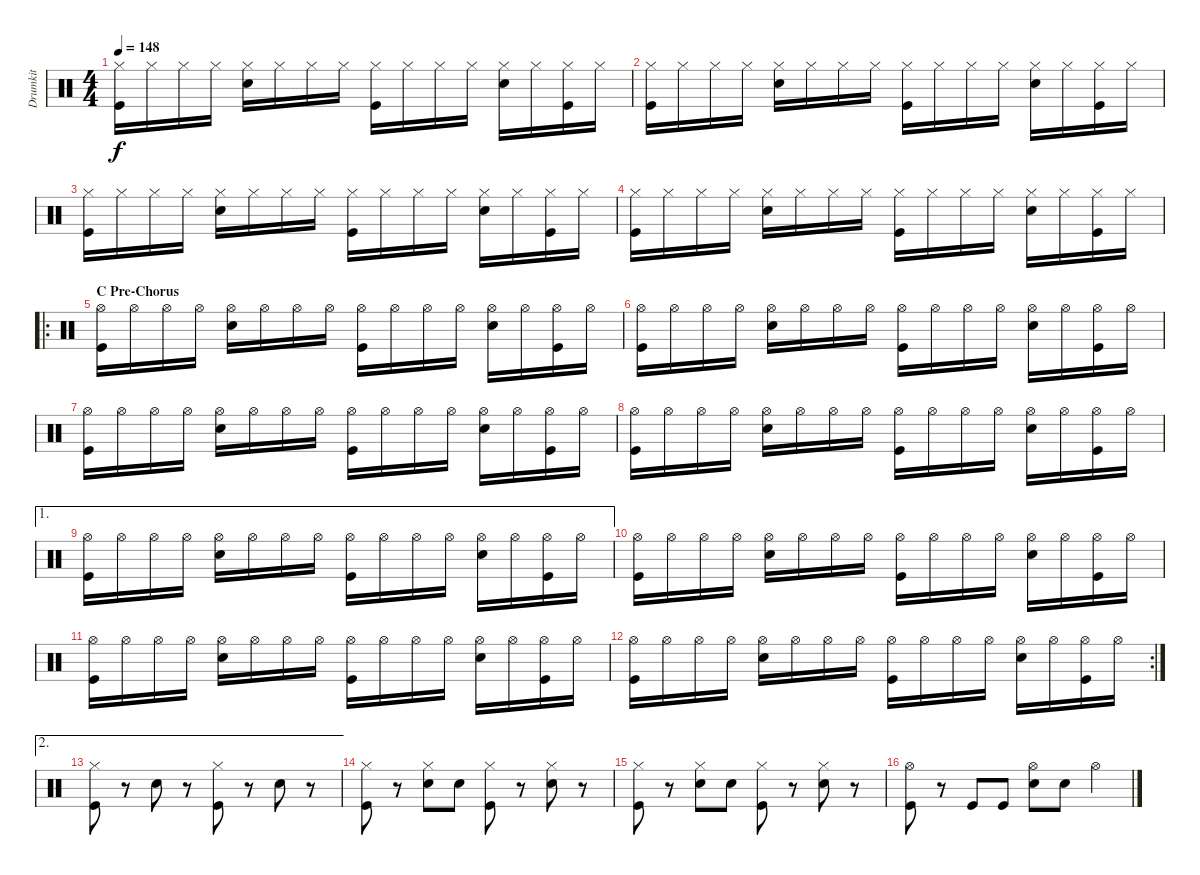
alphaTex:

\track ("Drumkit" "Drumkit") {instrument percussion}
\staff {score}
\articulation defaults
\ts (4 4)
\tempo 148
\clef neutral
\ks c
("Hi-Hat (closed)" "Kick (hit)").16{dy f} "Hi-Hat (closed)".16 "Hi-Hat (closed)".16 "Hi-Hat (closed)".16 ("Hi-Hat (closed)" "Snare (hit) 2").16 "Hi-Hat (closed)".16 "Hi-Hat (closed)".16 "Hi-Hat (closed)".16 ("Hi-Hat (closed)" "Kick (hit)").16 "Hi-Hat (closed)".16 "Hi-Hat (closed)".16 "Hi-Hat (closed)".16 ("Hi-Hat (closed)" "Snare (hit) 2").16 "Hi-Hat (closed)".16 ("Hi-Hat (closed)" "Kick (hit)").16 "Hi-Hat (closed)".16 |
("Hi-Hat (closed)" "Kick (hit)").16 "Hi-Hat (closed)".16 "Hi-Hat (closed)".16 "Hi-Hat (closed)".16 ("Hi-Hat (closed)" "Snare (hit) 2").16 "Hi-Hat (closed)".16 "Hi-Hat (closed)".16 "Hi-Hat (closed)".16 ("Hi-Hat (closed)" "Kick (hit)").16 "Hi-Hat (closed)".16 "Hi-Hat (closed)".16 "Hi-Hat (closed)".16 ("Hi-Hat (closed)" "Snare (hit) 2").16 "Hi-Hat (closed)".16 ("Hi-Hat (closed)" "Kick (hit)").16 "Hi-Hat (closed)".16 |
("Hi-Hat (closed)" "Kick (hit)").16 "Hi-Hat (closed)".16 "Hi-Hat (closed)".16 "Hi-Hat (closed)".16 ("Hi-Hat (closed)" "Snare (hit) 2").16 "Hi-Hat (closed)".16 "Hi-Hat (closed)".16 "Hi-Hat (closed)".16 ("Hi-Hat (closed)" "Kick (hit)").16 "Hi-Hat (closed)".16 "Hi-Hat (closed)".16 "Hi-Hat (closed)".16 ("Hi-Hat (closed)" "Snare (hit) 2").16 "Hi-Hat (closed)".16 ("Hi-Hat (closed)" "Kick (hit)").16 "Hi-Hat (closed)".16 |
("Hi-Hat (closed)" "Kick (hit)").16 "Hi-Hat (closed)".16 "Hi-Hat (closed)".16 "Hi-Hat (closed)".16 ("Hi-Hat (closed)" "Snare (hit) 2").16 "Hi-Hat (closed)".16 "Hi-Hat (closed)".16 "Hi-Hat (closed)".16 ("Hi-Hat (closed)" "Kick (hit)").16 "Hi-Hat (closed)".16 "Hi-Hat (closed)".16 "Hi-Hat (closed)".16 ("Hi-Hat (closed)" "Snare (hit) 2").16 "Hi-Hat (closed)".16 ("Hi-Hat (closed)" "Kick (hit)").16 "Hi-Hat (closed)".16 |
\ro
\section ("" "C Pre-Chorus")
("Hi-Hat (open)" "Kick (hit)").16 "Hi-Hat (open)".16 "Hi-Hat (open)".16 "Hi-Hat (open)".16 ("Hi-Hat (open)" "Snare (hit) 2").16 "Hi-Hat (open)".16 "Hi-Hat (open)".16 "Hi-Hat (open)".16 ("Hi-Hat (open)" "Kick (hit)").16 "Hi-Hat (open)".16 "Hi-Hat (open)".16 "Hi-Hat (open)".16 ("Hi-Hat (open)" "Snare (hit) 2").16 "Hi-Hat (open)".16 ("Hi-Hat (open)" "Kick (hit)").16 "Hi-Hat (open)".16 |
("Hi-Hat (open)" "Kick (hit)").16 "Hi-Hat (open)".16 "Hi-Hat (open)".16 "Hi-Hat (open)".16 ("Hi-Hat (open)" "Snare (hit) 2").16 "Hi-Hat (open)".16 "Hi-Hat (open)".16 "Hi-Hat (open)".16 ("Hi-Hat (open)" "Kick (hit)").16 "Hi-Hat (open)".16 "Hi-Hat (open)".16 "Hi-Hat (open)".16 ("Hi-Hat (open)" "Snare (hit) 2").16 "Hi-Hat (open)".16 ("Hi-Hat (open)" "Kick (hit)").16 "Hi-Hat (open)".16 |
("Hi-Hat (open)" "Kick (hit)").16 "Hi-Hat (open)".16 "Hi-Hat (open)".16 "Hi-Hat (open)".16 ("Hi-Hat (open)" "Snare (hit) 2").16 "Hi-Hat (open)".16 "Hi-Hat (open)".16 "Hi-Hat (open)".16 ("Hi-Hat (open)" "Kick (hit)").16 "Hi-Hat (open)".16 "Hi-Hat (open)".16 "Hi-Hat (open)".16 ("Hi-Hat (open)" "Snare (hit) 2").16 "Hi-Hat (open)".16 ("Hi-Hat (open)" "Kick (hit)").16 "Hi-Hat (open)".16 |
("Hi-Hat (open)" "Kick (hit)").16 "Hi-Hat (open)".16 "Hi-Hat (open)".16 "Hi-Hat (open)".16 ("Hi-Hat (open)" "Snare (hit) 2").16 "Hi-Hat (open)".16 "Hi-Hat (open)".16 "Hi-Hat (open)".16 ("Hi-Hat (open)" "Kick (hit)").16 "Hi-Hat (open)".16 "Hi-Hat (open)".16 "Hi-Hat (open)".16 ("Hi-Hat (open)" "Snare (hit) 2").16 "Hi-Hat (open)".16 ("Hi-Hat (open)" "Kick (hit)").16 "Hi-Hat (open)".16 |
\ae 1
("Hi-Hat (open)" "Kick (hit)").16 "Hi-Hat (open)".16 "Hi-Hat (open)".16 "Hi-Hat (open)".16 ("Hi-Hat (open)" "Snare (hit) 2").16 "Hi-Hat (open)".16 "Hi-Hat (open)".16 "Hi-Hat (open)".16 ("Hi-Hat (open)" "Kick (hit)").16 "Hi-Hat (open)".16 "Hi-Hat (open)".16 "Hi-Hat (open)".16 ("Hi-Hat (open)" "Snare (hit) 2").16 "Hi-Hat (open)".16 ("Hi-Hat (open)" "Kick (hit)").16 "Hi-Hat (open)".16 |
("Hi-Hat (open)" "Kick (hit)").16 "Hi-Hat (open)".16 "Hi-Hat (open)".16 "Hi-Hat (open)".16 ("Hi-Hat (open)" "Snare (hit) 2").16 "Hi-Hat (open)".16 "Hi-Hat (open)".16 "Hi-Hat (open)".16 ("Hi-Hat (open)" "Kick (hit)").16 "Hi-Hat (open)".16 "Hi-Hat (open)".16 "Hi-Hat (open)".16 ("Hi-Hat (open)" "Snare (hit) 2").16 "Hi-Hat (open)".16 ("Hi-Hat (open)" "Kick (hit)").16 "Hi-Hat (open)".16 |
("Hi-Hat (open)" "Kick (hit)").16 "Hi-Hat (open)".16 "Hi-Hat (open)".16 "Hi-Hat (open)".16 ("Hi-Hat (open)" "Snare (hit) 2").16 "Hi-Hat (open)".16 "Hi-Hat (open)".16 "Hi-Hat (open)".16 ("Hi-Hat (open)" "Kick (hit)").16 "Hi-Hat (open)".16 "Hi-Hat (open)".16 "Hi-Hat (open)".16 ("Hi-Hat (open)" "Snare (hit) 2").16 "Hi-Hat (open)".16 ("Hi-Hat (open)" "Kick (hit)").16 "Hi-Hat (open)".16 |
\rc 2
("Hi-Hat (open)" "Kick (hit)").16 "Hi-Hat (open)".16 "Hi-Hat (open)".16 "Hi-Hat (open)".16 ("Hi-Hat (open)" "Snare (hit) 2").16 "Hi-Hat (open)".16 "Hi-Hat (open)".16 "Hi-Hat (open)".16 ("Hi-Hat (open)" "Kick (hit)").16 "Hi-Hat (open)".16 "Hi-Hat (open)".16 "Hi-Hat (open)".16 ("Hi-Hat (open)" "Snare (hit) 2").16 "Hi-Hat (open)".16 ("Hi-Hat (open)" "Kick (hit)").16 "Hi-Hat (open)".16 |
\ae 2
("Hi-Hat (closed)" "Kick (hit)").8 r.8 "Snare (hit) 2".8 r.8 ("Hi-Hat (closed)" "Kick (hit)").8 r.8 "Snare (hit) 2".8 r.8 |
("Hi-Hat (closed)" "Kick (hit)").8 r.8 ("Hi-Hat (closed)" "Snare (hit) 2").8 "Snare (hit) 2".8 ("Hi-Hat (closed)" "Kick (hit)").8 r.8 ("Hi-Hat (closed)" "Snare (hit) 2").8 r.8 |
("Hi-Hat (closed)" "Kick (hit)").8 r.8 ("Hi-Hat (closed)" "Snare (hit) 2").8 "Snare (hit) 2".8 ("Hi-Hat (closed)" "Kick (hit)").8 r.8 ("Hi-Hat (closed)" "Snare (hit) 2").8 r.8 |
("Hi-Hat (open)" "Kick (hit)").8 r.8 "Kick (hit)".8 "Kick (hit)".8 ("Hi-Hat (open)" "Snare (hit) 2").8 "Snare (hit) 2".8 "Hi-Hat (open)".4
